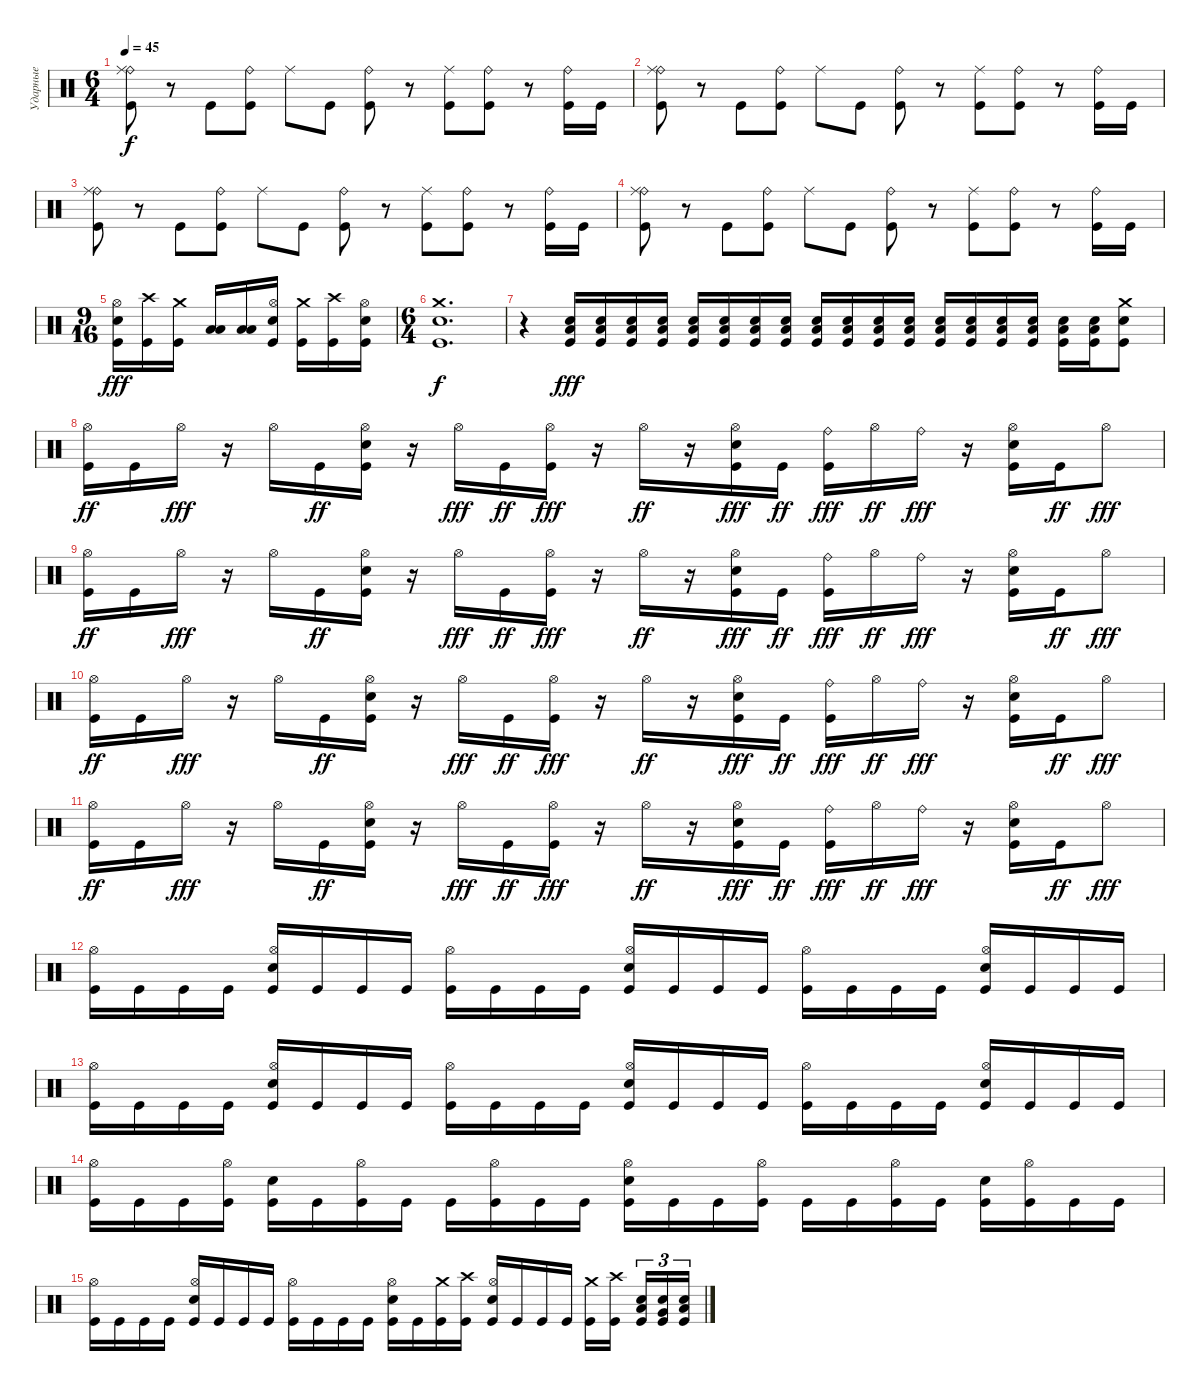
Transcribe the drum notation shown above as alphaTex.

\track ("Ударные" "Ударные") {instrument percussion}
\staff {score}
\articulation defaults
\ts (6 4)
\tempo 45
\clef neutral
\ks c
("Ride (bell)" "Kick (hit)" "Ride (middle)").8{dy f} r.8 "Kick (hit)".8 ("Ride (bell)" "Kick (hit)").8 "Ride (middle)".8 "Kick (hit)".8 ("Ride (bell)" "Kick (hit)").8 r.8 ("Kick (hit)" "Ride (middle)").8 ("Ride (bell)" "Kick (hit)").8 r.8 ("Ride (bell)" "Kick (hit)").16 "Kick (hit)".16 |
("Ride (bell)" "Kick (hit)" "Ride (middle)").8 r.8 "Kick (hit)".8 ("Ride (bell)" "Kick (hit)").8 "Ride (middle)".8 "Kick (hit)".8 ("Ride (bell)" "Kick (hit)").8 r.8 ("Kick (hit)" "Ride (middle)").8 ("Ride (bell)" "Kick (hit)").8 r.8 ("Ride (bell)" "Kick (hit)").16 "Kick (hit)".16 |
("Ride (bell)" "Kick (hit)" "Ride (middle)").8 r.8 "Kick (hit)".8 ("Ride (bell)" "Kick (hit)").8 "Ride (middle)".8 "Kick (hit)".8 ("Ride (bell)" "Kick (hit)").8 r.8 ("Kick (hit)" "Ride (middle)").8 ("Ride (bell)" "Kick (hit)").8 r.8 ("Ride (bell)" "Kick (hit)").16 "Kick (hit)".16 |
("Ride (bell)" "Kick (hit)" "Ride (middle)").8 r.8 "Kick (hit)".8 ("Ride (bell)" "Kick (hit)").8 "Ride (middle)".8 "Kick (hit)".8 ("Ride (bell)" "Kick (hit)").8 r.8 ("Kick (hit)" "Ride (middle)").8 ("Ride (bell)" "Kick (hit)").8 r.8 ("Ride (bell)" "Kick (hit)").16 "Kick (hit)".16 |
\ts (9 16)
("Kick (hit)" "Hi-Hat (open)" "Snare (hit) 2").16{dy fff} ("Kick (hit)" "Crash high (hit)").16 ("Kick (hit)" "Crash medium (hit)").16 ("Low Tom (hit)" "Low Floor Tom (hit)").16 ("Low Tom (hit)" "Low Floor Tom (hit)").16 ("Kick (hit)" "Hi-Hat (open)" "Snare (hit) 2").16 ("Kick (hit)" "Crash medium (hit)").16 ("Kick (hit)" "Crash high (hit)").16 ("Kick (hit)" "Hi-Hat (open)" "Snare (hit) 2").16 |
\ts (6 4)
("Kick (hit)" "Snare (hit) 2" "Crash medium (hit)").1{d dy f} |
r.4{volume 2} ("Kick (hit)" "Low Floor Tom (hit)" "Snare (hit) 2").16{dy fff volume 16} ("Kick (hit)" "Low Floor Tom (hit)" "Snare (hit) 2").16 ("Kick (hit)" "Low Floor Tom (hit)" "Snare (hit) 2").16 ("Kick (hit)" "Low Floor Tom (hit)" "Snare (hit) 2").16 ("Kick (hit)" "Low Floor Tom (hit)" "Snare (hit) 2").16 ("Kick (hit)" "Low Floor Tom (hit)" "Snare (hit) 2").16 ("Kick (hit)" "Low Floor Tom (hit)" "Snare (hit) 2").16 ("Kick (hit)" "Low Floor Tom (hit)" "Snare (hit) 2").16 ("Kick (hit)" "Low Floor Tom (hit)" "Snare (hit) 2").16 ("Kick (hit)" "Low Floor Tom (hit)" "Snare (hit) 2").16 ("Kick (hit)" "Low Floor Tom (hit)" "Snare (hit) 2").16 ("Kick (hit)" "Low Floor Tom (hit)" "Snare (hit) 2").16 ("Kick (hit)" "Low Floor Tom (hit)" "Snare (hit) 2").16 ("Kick (hit)" "Low Floor Tom (hit)" "Snare (hit) 2").16 ("Kick (hit)" "Low Floor Tom (hit)" "Snare (hit) 2").16 ("Kick (hit)" "Low Floor Tom (hit)" "Snare (hit) 2").16 ("Kick (hit)" "Low Floor Tom (hit)" "Snare (hit) 2").16 ("Kick (hit)" "Low Floor Tom (hit)" "Snare (hit) 2").16 ("Crash medium (hit)" "Kick (hit)" "Snare (hit) 2").8 |
("Kick (hit)" "Hi-Hat (open)").16{dy ff} "Kick (hit)".16 "Hi-Hat (open)".16{dy fff} r.16 "Hi-Hat (open)".16 "Kick (hit)".16{dy ff} ("Kick (hit)" "Snare (hit) 2" "Hi-Hat (open)").16 r.16 "Hi-Hat (open)".16{dy fff} "Kick (hit)".16{dy ff} ("Kick (hit)" "Hi-Hat (open)").16{dy fff} r.16 "Hi-Hat (open)".16{dy ff} r.16 ("Kick (hit)" "Snare (hit) 2" "Hi-Hat (open)").16{dy fff} "Kick (hit)".16{dy ff} ("Kick (hit)" "Ride (bell)").16{dy fff} "Hi-Hat (open)".16{dy ff} "Ride (bell)".16{dy fff} r.16 ("Kick (hit)" "Snare (hit) 2" "Hi-Hat (open)").16 "Kick (hit)".16{dy ff} "Hi-Hat (open)".8{dy fff} |
("Kick (hit)" "Hi-Hat (open)").16{dy ff} "Kick (hit)".16 "Hi-Hat (open)".16{dy fff} r.16 "Hi-Hat (open)".16 "Kick (hit)".16{dy ff} ("Kick (hit)" "Snare (hit) 2" "Hi-Hat (open)").16 r.16 "Hi-Hat (open)".16{dy fff} "Kick (hit)".16{dy ff} ("Kick (hit)" "Hi-Hat (open)").16{dy fff} r.16 "Hi-Hat (open)".16{dy ff} r.16 ("Kick (hit)" "Snare (hit) 2" "Hi-Hat (open)").16{dy fff} "Kick (hit)".16{dy ff} ("Kick (hit)" "Ride (bell)").16{dy fff} "Hi-Hat (open)".16{dy ff} "Ride (bell)".16{dy fff} r.16 ("Kick (hit)" "Snare (hit) 2" "Hi-Hat (open)").16 "Kick (hit)".16{dy ff} "Hi-Hat (open)".8{dy fff} |
("Kick (hit)" "Hi-Hat (open)").16{dy ff} "Kick (hit)".16 "Hi-Hat (open)".16{dy fff} r.16 "Hi-Hat (open)".16 "Kick (hit)".16{dy ff} ("Kick (hit)" "Snare (hit) 2" "Hi-Hat (open)").16 r.16 "Hi-Hat (open)".16{dy fff} "Kick (hit)".16{dy ff} ("Kick (hit)" "Hi-Hat (open)").16{dy fff} r.16 "Hi-Hat (open)".16{dy ff} r.16 ("Kick (hit)" "Snare (hit) 2" "Hi-Hat (open)").16{dy fff} "Kick (hit)".16{dy ff} ("Kick (hit)" "Ride (bell)").16{dy fff} "Hi-Hat (open)".16{dy ff} "Ride (bell)".16{dy fff} r.16 ("Kick (hit)" "Snare (hit) 2" "Hi-Hat (open)").16 "Kick (hit)".16{dy ff} "Hi-Hat (open)".8{dy fff} |
("Kick (hit)" "Hi-Hat (open)").16{dy ff} "Kick (hit)".16 "Hi-Hat (open)".16{dy fff} r.16 "Hi-Hat (open)".16 "Kick (hit)".16{dy ff} ("Kick (hit)" "Snare (hit) 2" "Hi-Hat (open)").16 r.16 "Hi-Hat (open)".16{dy fff} "Kick (hit)".16{dy ff} ("Kick (hit)" "Hi-Hat (open)").16{dy fff} r.16 "Hi-Hat (open)".16{dy ff} r.16 ("Kick (hit)" "Snare (hit) 2" "Hi-Hat (open)").16{dy fff} "Kick (hit)".16{dy ff} ("Kick (hit)" "Ride (bell)").16{dy fff} "Hi-Hat (open)".16{dy ff} "Ride (bell)".16{dy fff} r.16 ("Kick (hit)" "Snare (hit) 2" "Hi-Hat (open)").16 "Kick (hit)".16{dy ff} "Hi-Hat (open)".8{dy fff} |
("Kick (hit)" "Hi-Hat (open)").16 "Kick (hit)".16 "Kick (hit)".16 "Kick (hit)".16 ("Kick (hit)" "Snare (hit) 2" "Hi-Hat (open)").16 "Kick (hit)".16 "Kick (hit)".16 "Kick (hit)".16 ("Kick (hit)" "Hi-Hat (open)").16 "Kick (hit)".16 "Kick (hit)".16 "Kick (hit)".16 ("Kick (hit)" "Snare (hit) 2" "Hi-Hat (open)").16 "Kick (hit)".16 "Kick (hit)".16 "Kick (hit)".16 ("Kick (hit)" "Hi-Hat (open)").16 "Kick (hit)".16 "Kick (hit)".16 "Kick (hit)".16 ("Kick (hit)" "Snare (hit) 2" "Hi-Hat (open)").16 "Kick (hit)".16 "Kick (hit)".16 "Kick (hit)".16 |
("Kick (hit)" "Hi-Hat (open)").16 "Kick (hit)".16 "Kick (hit)".16 "Kick (hit)".16 ("Kick (hit)" "Snare (hit) 2" "Hi-Hat (open)").16 "Kick (hit)".16 "Kick (hit)".16 "Kick (hit)".16 ("Kick (hit)" "Hi-Hat (open)").16 "Kick (hit)".16 "Kick (hit)".16 "Kick (hit)".16 ("Kick (hit)" "Snare (hit) 2" "Hi-Hat (open)").16 "Kick (hit)".16 "Kick (hit)".16 "Kick (hit)".16 ("Kick (hit)" "Hi-Hat (open)").16 "Kick (hit)".16 "Kick (hit)".16 "Kick (hit)".16 ("Kick (hit)" "Snare (hit) 2" "Hi-Hat (open)").16 "Kick (hit)".16 "Kick (hit)".16 "Kick (hit)".16 |
("Kick (hit)" "Hi-Hat (open)").16 "Kick (hit)".16 "Kick (hit)".16 ("Kick (hit)" "Hi-Hat (open)").16 ("Kick (hit)" "Snare (hit) 2").16 "Kick (hit)".16 ("Kick (hit)" "Hi-Hat (open)").16 "Kick (hit)".16 "Kick (hit)".16 ("Kick (hit)" "Hi-Hat (open)").16 "Kick (hit)".16 "Kick (hit)".16 ("Kick (hit)" "Snare (hit) 2" "Hi-Hat (open)").16 "Kick (hit)".16 "Kick (hit)".16 ("Kick (hit)" "Hi-Hat (open)").16 "Kick (hit)".16 "Kick (hit)".16 ("Kick (hit)" "Hi-Hat (open)").16 "Kick (hit)".16 ("Kick (hit)" "Snare (hit) 2").16 ("Kick (hit)" "Hi-Hat (open)").16 "Kick (hit)".16 "Kick (hit)".16 |
("Kick (hit)" "Hi-Hat (open)").16 "Kick (hit)".16 "Kick (hit)".16 "Kick (hit)".16 ("Kick (hit)" "Snare (hit) 2" "Hi-Hat (open)").16 "Kick (hit)".16 "Kick (hit)".16 "Kick (hit)".16 ("Kick (hit)" "Hi-Hat (open)").16 "Kick (hit)".16 "Kick (hit)".16 "Kick (hit)".16 ("Kick (hit)" "Snare (hit) 2" "Hi-Hat (open)").16 "Kick (hit)".16 ("Kick (hit)" "Crash medium (hit)").16 ("Kick (hit)" "Crash high (hit)").16 ("Kick (hit)" "Snare (hit) 2" "Hi-Hat (open)").16 "Kick (hit)".16 "Kick (hit)".16 "Kick (hit)".16 ("Kick (hit)" "Crash medium (hit)").16 ("Kick (hit)" "Crash high (hit)").16{beam splitsecondary} ("Kick (hit)" "Low Tom (hit)" "Snare (hit) 2").16{tu (3 2)} ("Kick (hit)" "Very Low Tom (hit)" "Snare (hit) 2").16{tu (3 2)} ("Kick (hit)" "Low Floor Tom (hit)" "Snare (hit) 2").16{tu (3 2)}
